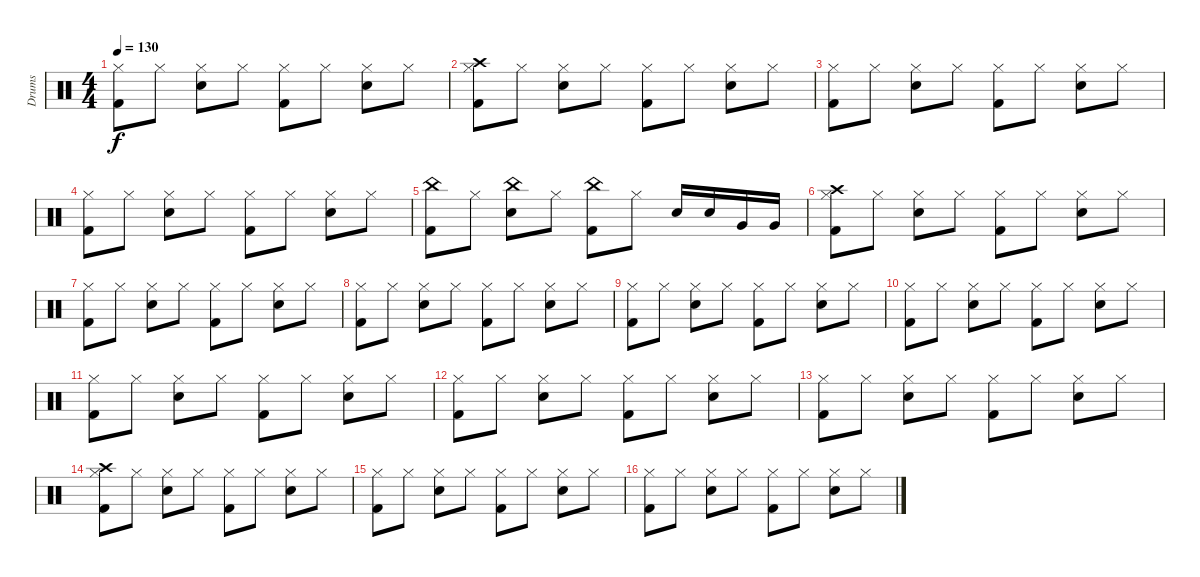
\track ("Drums" "Drums") {instrument percussion}
\staff {score}
\articulation defaults
\ts (4 4)
\tempo 130
\clef neutral
\ks c
("Hi-Hat (closed)" "Kick (hit) 2").8{dy f} "Hi-Hat (closed)".8 ("Hi-Hat (closed)" "Electric Snare (hit)").8 "Hi-Hat (closed)".8 ("Hi-Hat (closed)" "Kick (hit) 2").8 "Hi-Hat (closed)".8 ("Hi-Hat (closed)" "Electric Snare (hit)").8 "Hi-Hat (closed)".8 |
("Hi-Hat (closed)" "Kick (hit) 2" "Crash high (hit)").8 "Hi-Hat (closed)".8 ("Hi-Hat (closed)" "Electric Snare (hit)").8 "Hi-Hat (closed)".8 ("Hi-Hat (closed)" "Kick (hit) 2").8 "Hi-Hat (closed)".8 ("Hi-Hat (closed)" "Electric Snare (hit)").8 "Hi-Hat (closed)".8 |
("Hi-Hat (closed)" "Kick (hit) 2").8 "Hi-Hat (closed)".8 ("Hi-Hat (closed)" "Electric Snare (hit)").8 "Hi-Hat (closed)".8 ("Hi-Hat (closed)" "Kick (hit) 2").8 "Hi-Hat (closed)".8 ("Hi-Hat (closed)" "Electric Snare (hit)").8 "Hi-Hat (closed)".8 |
("Hi-Hat (closed)" "Kick (hit) 2").8 "Hi-Hat (closed)".8 ("Hi-Hat (closed)" "Electric Snare (hit)").8 "Hi-Hat (closed)".8 ("Hi-Hat (closed)" "Kick (hit) 2").8 "Hi-Hat (closed)".8 ("Hi-Hat (closed)" "Electric Snare (hit)").8 "Hi-Hat (closed)".8 |
("China (hit)" "Kick (hit) 2").8 "Hi-Hat (closed)".8 ("China (hit)" "Electric Snare (hit)").8 "Hi-Hat (closed)".8 ("China (hit)" "Kick (hit) 2").8 "Hi-Hat (closed)".8 "Electric Snare (hit)".16 "Electric Snare (hit)".16 "Very Low Tom (hit)".16 "Very Low Tom (hit)".16 |
("Hi-Hat (closed)" "Kick (hit) 2" "Crash high (hit)").8 "Hi-Hat (closed)".8 ("Hi-Hat (closed)" "Electric Snare (hit)").8 "Hi-Hat (closed)".8 ("Hi-Hat (closed)" "Kick (hit) 2").8 "Hi-Hat (closed)".8 ("Hi-Hat (closed)" "Electric Snare (hit)").8 "Hi-Hat (closed)".8 |
("Hi-Hat (closed)" "Kick (hit) 2").8 "Hi-Hat (closed)".8 ("Hi-Hat (closed)" "Electric Snare (hit)").8 "Hi-Hat (closed)".8 ("Hi-Hat (closed)" "Kick (hit) 2").8 "Hi-Hat (closed)".8 ("Hi-Hat (closed)" "Electric Snare (hit)").8 "Hi-Hat (closed)".8 |
("Hi-Hat (closed)" "Kick (hit) 2").8 "Hi-Hat (closed)".8 ("Hi-Hat (closed)" "Electric Snare (hit)").8 "Hi-Hat (closed)".8 ("Hi-Hat (closed)" "Kick (hit) 2").8 "Hi-Hat (closed)".8 ("Hi-Hat (closed)" "Electric Snare (hit)").8 "Hi-Hat (closed)".8 |
("Hi-Hat (closed)" "Kick (hit) 2").8 "Hi-Hat (closed)".8 ("Hi-Hat (closed)" "Electric Snare (hit)").8 "Hi-Hat (closed)".8 ("Hi-Hat (closed)" "Kick (hit) 2").8 "Hi-Hat (closed)".8 ("Hi-Hat (closed)" "Electric Snare (hit)").8 "Hi-Hat (closed)".8 |
("Hi-Hat (closed)" "Kick (hit) 2").8 "Hi-Hat (closed)".8 ("Hi-Hat (closed)" "Electric Snare (hit)").8 "Hi-Hat (closed)".8 ("Hi-Hat (closed)" "Kick (hit) 2").8 "Hi-Hat (closed)".8 ("Hi-Hat (closed)" "Electric Snare (hit)").8 "Hi-Hat (closed)".8 |
("Hi-Hat (closed)" "Kick (hit) 2").8 "Hi-Hat (closed)".8 ("Hi-Hat (closed)" "Electric Snare (hit)").8 "Hi-Hat (closed)".8 ("Hi-Hat (closed)" "Kick (hit) 2").8 "Hi-Hat (closed)".8 ("Hi-Hat (closed)" "Electric Snare (hit)").8 "Hi-Hat (closed)".8 |
("Hi-Hat (closed)" "Kick (hit) 2").8 "Hi-Hat (closed)".8 ("Hi-Hat (closed)" "Electric Snare (hit)").8 "Hi-Hat (closed)".8 ("Hi-Hat (closed)" "Kick (hit) 2").8 "Hi-Hat (closed)".8 ("Hi-Hat (closed)" "Electric Snare (hit)").8 "Hi-Hat (closed)".8 |
("Hi-Hat (closed)" "Kick (hit) 2").8 "Hi-Hat (closed)".8 ("Hi-Hat (closed)" "Electric Snare (hit)").8 "Hi-Hat (closed)".8 ("Hi-Hat (closed)" "Kick (hit) 2").8 "Hi-Hat (closed)".8 ("Hi-Hat (closed)" "Electric Snare (hit)").8 "Hi-Hat (closed)".8 |
("Hi-Hat (closed)" "Kick (hit) 2" "Crash high (hit)").8 "Hi-Hat (closed)".8 ("Hi-Hat (closed)" "Electric Snare (hit)").8 "Hi-Hat (closed)".8 ("Hi-Hat (closed)" "Kick (hit) 2").8 "Hi-Hat (closed)".8 ("Hi-Hat (closed)" "Electric Snare (hit)").8 "Hi-Hat (closed)".8 |
("Hi-Hat (closed)" "Kick (hit) 2").8 "Hi-Hat (closed)".8 ("Hi-Hat (closed)" "Electric Snare (hit)").8 "Hi-Hat (closed)".8 ("Hi-Hat (closed)" "Kick (hit) 2").8 "Hi-Hat (closed)".8 ("Hi-Hat (closed)" "Electric Snare (hit)").8 "Hi-Hat (closed)".8 |
("Hi-Hat (closed)" "Kick (hit) 2").8 "Hi-Hat (closed)".8 ("Hi-Hat (closed)" "Electric Snare (hit)").8 "Hi-Hat (closed)".8 ("Hi-Hat (closed)" "Kick (hit) 2").8 "Hi-Hat (closed)".8 ("Hi-Hat (closed)" "Electric Snare (hit)").8 "Hi-Hat (closed)".8
